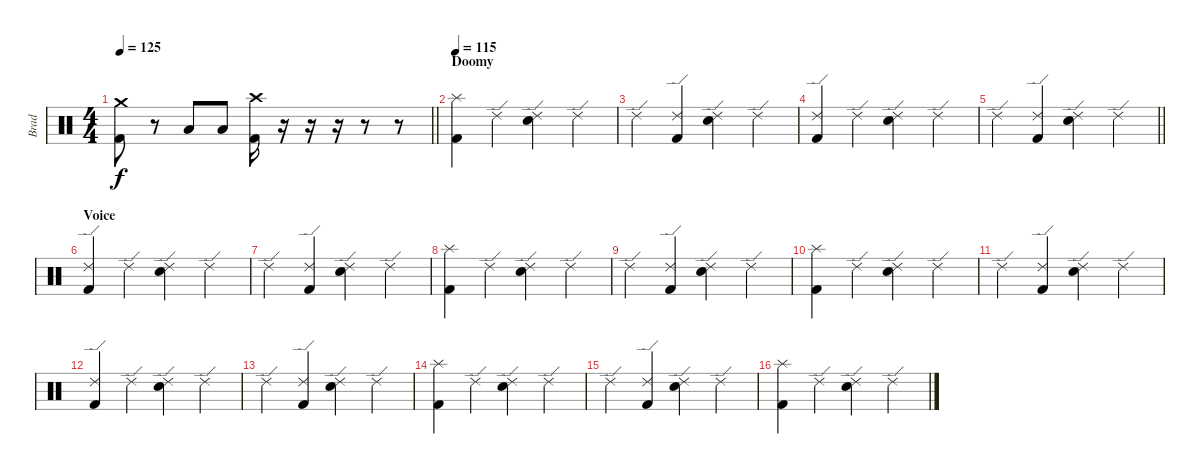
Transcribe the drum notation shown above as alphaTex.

\track ("Brad" "Brad") {instrument percussion}
\staff {score}
\articulation defaults
\ts (4 4)
\tempo 125
\clef neutral
\barLineRight lightlight
\ks c
("Crash medium (hit)" "Kick (hit) 2").8{dy f} r.8 "Low Tom (hit)".8 "Low Tom (hit)".8 ("Crash high (hit)" "Kick (hit) 2").16 r.16 r.16 r.16 r.8 r.8 |
\section ("" "Doomy")
\tempo 115
("Splash (hit)" "Kick (hit) 2").4 "Ride (edge) 2".4 ("Ride (edge) 2" "Electric Snare (hit)").4 "Ride (edge) 2".4 |
"Ride (edge) 2".4 ("Ride (edge) 2" "Kick (hit) 2").4 ("Ride (edge) 2" "Electric Snare (hit)").4 "Ride (edge) 2".4 |
("Ride (edge) 2" "Kick (hit) 2").4 "Ride (edge) 2".4 ("Ride (edge) 2" "Electric Snare (hit)").4 "Ride (edge) 2".4 |
\barLineRight lightlight "Ride (edge) 2".4
("Ride (edge) 2" "Kick (hit) 2").4 ("Ride (edge) 2" "Electric Snare (hit)").4 "Ride (edge) 2".4 |
\section ("" "Voice")
("Ride (edge) 2" "Kick (hit) 2").4 "Ride (edge) 2".4 ("Ride (edge) 2" "Electric Snare (hit)").4 "Ride (edge) 2".4 |
"Ride (edge) 2".4 ("Ride (edge) 2" "Kick (hit) 2").4 ("Ride (edge) 2" "Electric Snare (hit)").4 "Ride (edge) 2".4 |
("Splash (hit)" "Kick (hit) 2").4 "Ride (edge) 2".4 ("Ride (edge) 2" "Electric Snare (hit)").4 "Ride (edge) 2".4 |
"Ride (edge) 2".4 ("Ride (edge) 2" "Kick (hit) 2").4 ("Ride (edge) 2" "Electric Snare (hit)").4 "Ride (edge) 2".4 |
("Splash (hit)" "Kick (hit) 2").4 "Ride (edge) 2".4 ("Ride (edge) 2" "Electric Snare (hit)").4 "Ride (edge) 2".4 |
"Ride (edge) 2".4 ("Ride (edge) 2" "Kick (hit) 2").4 ("Ride (edge) 2" "Electric Snare (hit)").4 "Ride (edge) 2".4 |
("Ride (edge) 2" "Kick (hit) 2").4 "Ride (edge) 2".4 ("Ride (edge) 2" "Electric Snare (hit)").4 "Ride (edge) 2".4 |
"Ride (edge) 2".4 ("Ride (edge) 2" "Kick (hit) 2").4 ("Ride (edge) 2" "Electric Snare (hit)").4 "Ride (edge) 2".4 |
("Splash (hit)" "Kick (hit) 2").4 "Ride (edge) 2".4 ("Ride (edge) 2" "Electric Snare (hit)").4 "Ride (edge) 2".4 |
"Ride (edge) 2".4 ("Ride (edge) 2" "Kick (hit) 2").4 ("Ride (edge) 2" "Electric Snare (hit)").4 "Ride (edge) 2".4 |
("Splash (hit)" "Kick (hit) 2").4 "Ride (edge) 2".4 ("Ride (edge) 2" "Electric Snare (hit)").4 "Ride (edge) 2".4
